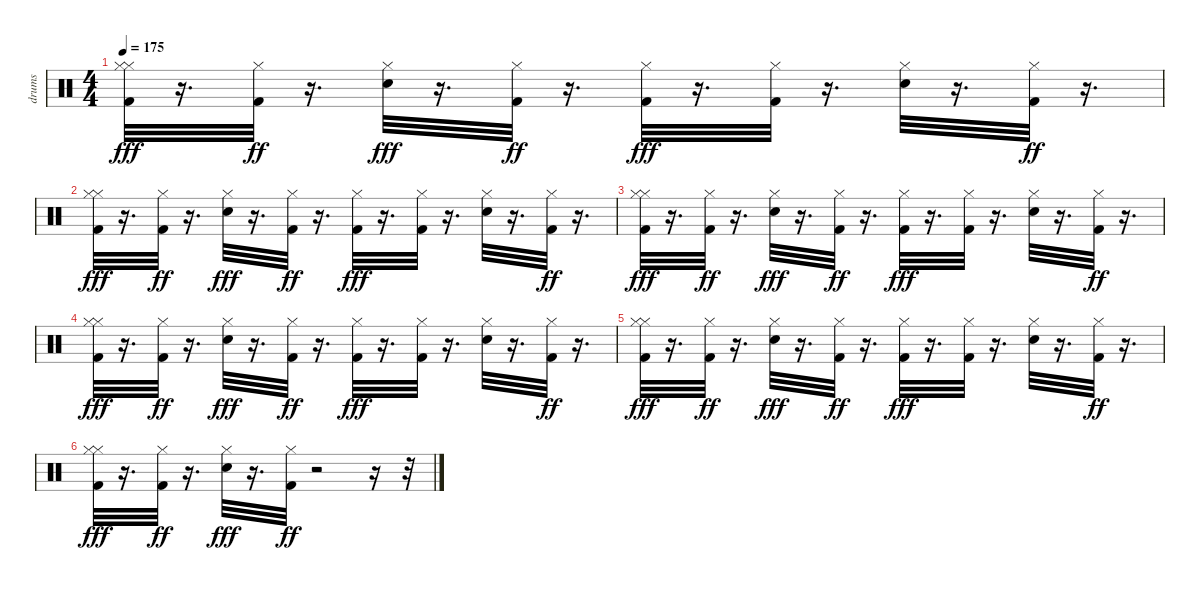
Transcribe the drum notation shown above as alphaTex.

\track ("drums" "drums") {instrument percussion}
\staff {score}
\articulation defaults
\ts (4 4)
\tempo 175
\clef neutral
\ks c
("Hi-Hat (closed)" "Hi-Hat (closed)" "Kick (hit) 2").32{dy fff} r.16{d} ("Hi-Hat (closed)" "Kick (hit) 2").32{dy ff} r.16{d} ("Hi-Hat (closed)" "Electric Snare (hit)").32{dy fff} r.16{d} ("Hi-Hat (closed)" "Kick (hit) 2").32{dy ff} r.16{d} ("Hi-Hat (closed)" "Kick (hit) 2").32{dy fff} r.16{d} ("Hi-Hat (closed)" "Kick (hit) 2").32 r.16{d} ("Hi-Hat (closed)" "Electric Snare (hit)").32 r.16{d} ("Hi-Hat (closed)" "Kick (hit) 2").32{dy ff} r.16{d} |
("Hi-Hat (closed)" "Hi-Hat (closed)" "Kick (hit) 2").32{dy fff} r.16{d} ("Hi-Hat (closed)" "Kick (hit) 2").32{dy ff} r.16{d} ("Hi-Hat (closed)" "Electric Snare (hit)").32{dy fff} r.16{d} ("Hi-Hat (closed)" "Kick (hit) 2").32{dy ff} r.16{d} ("Hi-Hat (closed)" "Kick (hit) 2").32{dy fff} r.16{d} ("Hi-Hat (closed)" "Kick (hit) 2").32 r.16{d} ("Hi-Hat (closed)" "Electric Snare (hit)").32 r.16{d} ("Hi-Hat (closed)" "Kick (hit) 2").32{dy ff} r.16{d} |
("Hi-Hat (closed)" "Hi-Hat (closed)" "Kick (hit) 2").32{dy fff} r.16{d} ("Hi-Hat (closed)" "Kick (hit) 2").32{dy ff} r.16{d} ("Hi-Hat (closed)" "Electric Snare (hit)").32{dy fff} r.16{d} ("Hi-Hat (closed)" "Kick (hit) 2").32{dy ff} r.16{d} ("Hi-Hat (closed)" "Kick (hit) 2").32{dy fff} r.16{d} ("Hi-Hat (closed)" "Kick (hit) 2").32 r.16{d} ("Hi-Hat (closed)" "Electric Snare (hit)").32 r.16{d} ("Hi-Hat (closed)" "Kick (hit) 2").32{dy ff} r.16{d} |
("Hi-Hat (closed)" "Hi-Hat (closed)" "Kick (hit) 2").32{dy fff} r.16{d} ("Hi-Hat (closed)" "Kick (hit) 2").32{dy ff} r.16{d} ("Hi-Hat (closed)" "Electric Snare (hit)").32{dy fff} r.16{d} ("Hi-Hat (closed)" "Kick (hit) 2").32{dy ff} r.16{d} ("Hi-Hat (closed)" "Kick (hit) 2").32{dy fff} r.16{d} ("Hi-Hat (closed)" "Kick (hit) 2").32 r.16{d} ("Hi-Hat (closed)" "Electric Snare (hit)").32 r.16{d} ("Hi-Hat (closed)" "Kick (hit) 2").32{dy ff} r.16{d} |
("Hi-Hat (closed)" "Hi-Hat (closed)" "Kick (hit) 2").32{dy fff} r.16{d} ("Hi-Hat (closed)" "Kick (hit) 2").32{dy ff} r.16{d} ("Hi-Hat (closed)" "Electric Snare (hit)").32{dy fff} r.16{d} ("Hi-Hat (closed)" "Kick (hit) 2").32{dy ff} r.16{d} ("Hi-Hat (closed)" "Kick (hit) 2").32{dy fff} r.16{d} ("Hi-Hat (closed)" "Kick (hit) 2").32 r.16{d} ("Hi-Hat (closed)" "Electric Snare (hit)").32 r.16{d} ("Hi-Hat (closed)" "Kick (hit) 2").32{dy ff} r.16{d} |
("Hi-Hat (closed)" "Hi-Hat (closed)" "Kick (hit) 2").32{dy fff} r.16{d} ("Hi-Hat (closed)" "Kick (hit) 2").32{dy ff} r.16{d} ("Hi-Hat (closed)" "Electric Snare (hit)").32{dy fff} r.16{d} ("Hi-Hat (closed)" "Kick (hit) 2").32{dy ff} r.2 r.16 r.32
